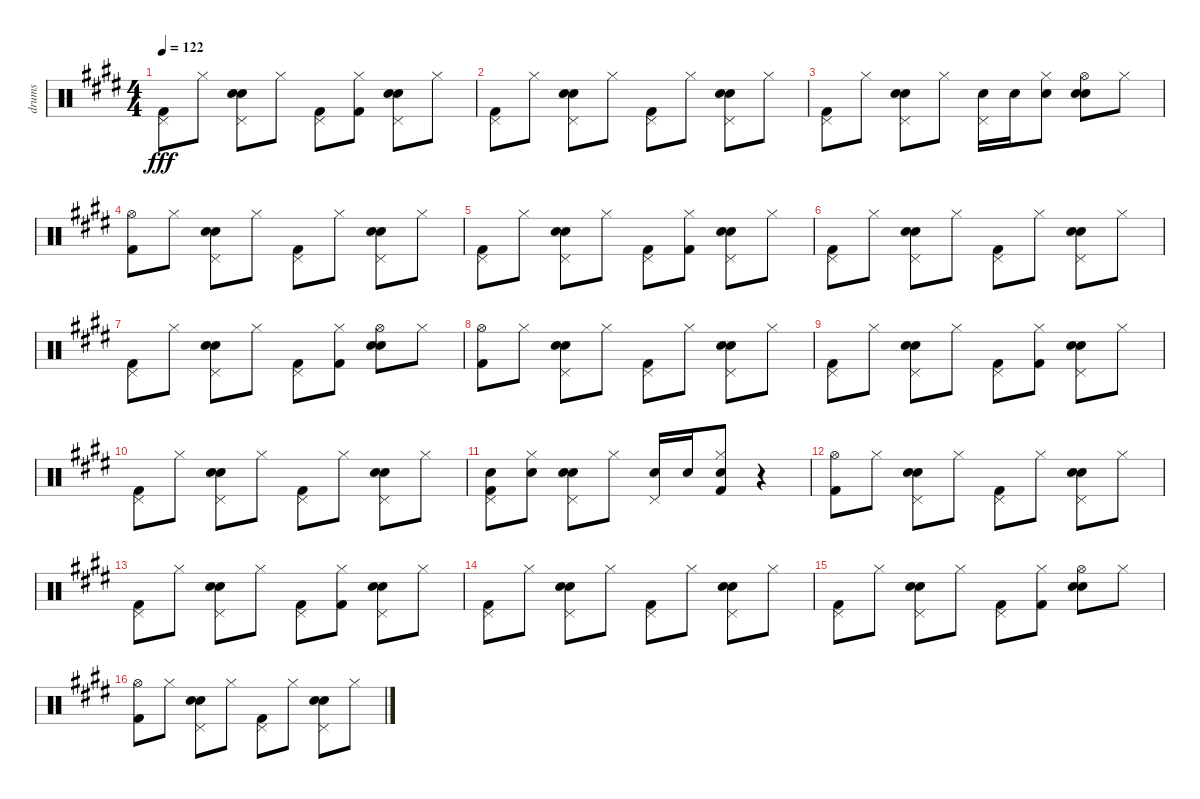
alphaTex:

\track ("drums" "drums") {instrument percussion}
\staff {score}
\articulation defaults
\ts (4 4)
\tempo 122
\clef neutral
\ks e
("Pedal Hi-Hat (hit)" "Kick (hit) 2").8{dy fff} "Hi-Hat (closed)".8 ("Hand Clap (hit)" "Pedal Hi-Hat (hit)" "Snare (hit) 2").8 "Hi-Hat (closed)".8 ("Pedal Hi-Hat (hit)" "Kick (hit) 2").8 ("Hi-Hat (closed)" "Kick (hit) 2").8 ("Hand Clap (hit)" "Pedal Hi-Hat (hit)" "Snare (hit) 2").8 "Hi-Hat (closed)".8 |
("Pedal Hi-Hat (hit)" "Kick (hit) 2").8 "Hi-Hat (closed)".8 ("Hand Clap (hit)" "Pedal Hi-Hat (hit)" "Snare (hit) 2").8 "Hi-Hat (closed)".8 ("Pedal Hi-Hat (hit)" "Kick (hit) 2").8 "Hi-Hat (closed)".8 ("Hand Clap (hit)" "Pedal Hi-Hat (hit)" "Snare (hit) 2").8 "Hi-Hat (closed)".8 |
("Pedal Hi-Hat (hit)" "Kick (hit) 2").8 "Hi-Hat (closed)".8 ("Hand Clap (hit)" "Pedal Hi-Hat (hit)" "Snare (hit) 2").8 "Hi-Hat (closed)".8 ("Snare (hit) 2" "Pedal Hi-Hat (hit)").16 "Snare (hit) 2".16 ("Snare (hit) 2" "Hi-Hat (closed)").8 ("Hand Clap (hit)" "Snare (hit) 2" "Hi-Hat (open)").8 "Hi-Hat (closed)".8 |
("Hi-Hat (open)" "Kick (hit) 2").8 "Hi-Hat (closed)".8 ("Hand Clap (hit)" "Pedal Hi-Hat (hit)" "Snare (hit) 2").8 "Hi-Hat (closed)".8 ("Pedal Hi-Hat (hit)" "Kick (hit) 2").8 "Hi-Hat (closed)".8 ("Hand Clap (hit)" "Pedal Hi-Hat (hit)" "Snare (hit) 2").8 "Hi-Hat (closed)".8 |
("Pedal Hi-Hat (hit)" "Kick (hit) 2").8 "Hi-Hat (closed)".8 ("Hand Clap (hit)" "Pedal Hi-Hat (hit)" "Snare (hit) 2").8 "Hi-Hat (closed)".8 ("Pedal Hi-Hat (hit)" "Kick (hit) 2").8 ("Hi-Hat (closed)" "Kick (hit) 2").8 ("Hand Clap (hit)" "Pedal Hi-Hat (hit)" "Snare (hit) 2").8 "Hi-Hat (closed)".8 |
("Pedal Hi-Hat (hit)" "Kick (hit) 2").8 "Hi-Hat (closed)".8 ("Hand Clap (hit)" "Pedal Hi-Hat (hit)" "Snare (hit) 2").8 "Hi-Hat (closed)".8 ("Pedal Hi-Hat (hit)" "Kick (hit) 2").8 "Hi-Hat (closed)".8 ("Hand Clap (hit)" "Pedal Hi-Hat (hit)" "Snare (hit) 2").8 "Hi-Hat (closed)".8 |
("Pedal Hi-Hat (hit)" "Kick (hit) 2").8 "Hi-Hat (closed)".8 ("Hand Clap (hit)" "Pedal Hi-Hat (hit)" "Snare (hit) 2").8 "Hi-Hat (closed)".8 ("Kick (hit) 2" "Pedal Hi-Hat (hit)").8 ("Kick (hit) 2" "Hi-Hat (closed)").8 ("Hand Clap (hit)" "Hi-Hat (open)" "Snare (hit) 2").8 "Hi-Hat (closed)".8 |
("Hi-Hat (open)" "Kick (hit) 2").8 "Hi-Hat (closed)".8 ("Hand Clap (hit)" "Pedal Hi-Hat (hit)" "Snare (hit) 2").8 "Hi-Hat (closed)".8 ("Pedal Hi-Hat (hit)" "Kick (hit) 2").8 "Hi-Hat (closed)".8 ("Hand Clap (hit)" "Pedal Hi-Hat (hit)" "Snare (hit) 2").8 "Hi-Hat (closed)".8 |
("Pedal Hi-Hat (hit)" "Kick (hit) 2").8 "Hi-Hat (closed)".8 ("Hand Clap (hit)" "Pedal Hi-Hat (hit)" "Snare (hit) 2").8 "Hi-Hat (closed)".8 ("Pedal Hi-Hat (hit)" "Kick (hit) 2").8 ("Hi-Hat (closed)" "Kick (hit) 2").8 ("Hand Clap (hit)" "Pedal Hi-Hat (hit)" "Snare (hit) 2").8 "Hi-Hat (closed)".8 |
("Pedal Hi-Hat (hit)" "Kick (hit) 2").8 "Hi-Hat (closed)".8 ("Hand Clap (hit)" "Pedal Hi-Hat (hit)" "Snare (hit) 2").8 "Hi-Hat (closed)".8 ("Pedal Hi-Hat (hit)" "Kick (hit) 2").8 "Hi-Hat (closed)".8 ("Hand Clap (hit)" "Pedal Hi-Hat (hit)" "Snare (hit) 2").8 "Hi-Hat (closed)".8 |
("Snare (hit) 2" "Kick (hit) 2" "Pedal Hi-Hat (hit)").8 ("Snare (hit) 2" "Hi-Hat (closed)").8 ("Hand Clap (hit)" "Pedal Hi-Hat (hit)" "Snare (hit) 2").8 "Hi-Hat (closed)".8 ("Snare (hit) 2" "Pedal Hi-Hat (hit)").16 "Snare (hit) 2".16 ("Kick (hit) 2" "Snare (hit) 2" "Hi-Hat (closed)").8 r.4 |
("Hi-Hat (open)" "Kick (hit) 2").8 "Hi-Hat (closed)".8 ("Hand Clap (hit)" "Pedal Hi-Hat (hit)" "Snare (hit) 2").8 "Hi-Hat (closed)".8 ("Pedal Hi-Hat (hit)" "Kick (hit) 2").8 "Hi-Hat (closed)".8 ("Hand Clap (hit)" "Pedal Hi-Hat (hit)" "Snare (hit) 2").8 "Hi-Hat (closed)".8 |
("Pedal Hi-Hat (hit)" "Kick (hit) 2").8 "Hi-Hat (closed)".8 ("Hand Clap (hit)" "Pedal Hi-Hat (hit)" "Snare (hit) 2").8 "Hi-Hat (closed)".8 ("Pedal Hi-Hat (hit)" "Kick (hit) 2").8 ("Hi-Hat (closed)" "Kick (hit) 2").8 ("Hand Clap (hit)" "Pedal Hi-Hat (hit)" "Snare (hit) 2").8 "Hi-Hat (closed)".8 |
("Pedal Hi-Hat (hit)" "Kick (hit) 2").8 "Hi-Hat (closed)".8 ("Hand Clap (hit)" "Pedal Hi-Hat (hit)" "Snare (hit) 2").8 "Hi-Hat (closed)".8 ("Pedal Hi-Hat (hit)" "Kick (hit) 2").8 "Hi-Hat (closed)".8 ("Hand Clap (hit)" "Pedal Hi-Hat (hit)" "Snare (hit) 2").8 "Hi-Hat (closed)".8 |
("Pedal Hi-Hat (hit)" "Kick (hit) 2").8 "Hi-Hat (closed)".8 ("Hand Clap (hit)" "Pedal Hi-Hat (hit)" "Snare (hit) 2").8 "Hi-Hat (closed)".8 ("Kick (hit) 2" "Pedal Hi-Hat (hit)").8 ("Kick (hit) 2" "Hi-Hat (closed)").8 ("Hand Clap (hit)" "Hi-Hat (open)" "Snare (hit) 2").8 "Hi-Hat (closed)".8 |
("Hi-Hat (open)" "Kick (hit) 2").8 "Hi-Hat (closed)".8 ("Hand Clap (hit)" "Pedal Hi-Hat (hit)" "Snare (hit) 2").8 "Hi-Hat (closed)".8 ("Pedal Hi-Hat (hit)" "Kick (hit) 2").8 "Hi-Hat (closed)".8 ("Hand Clap (hit)" "Pedal Hi-Hat (hit)" "Snare (hit) 2").8 "Hi-Hat (closed)".8
